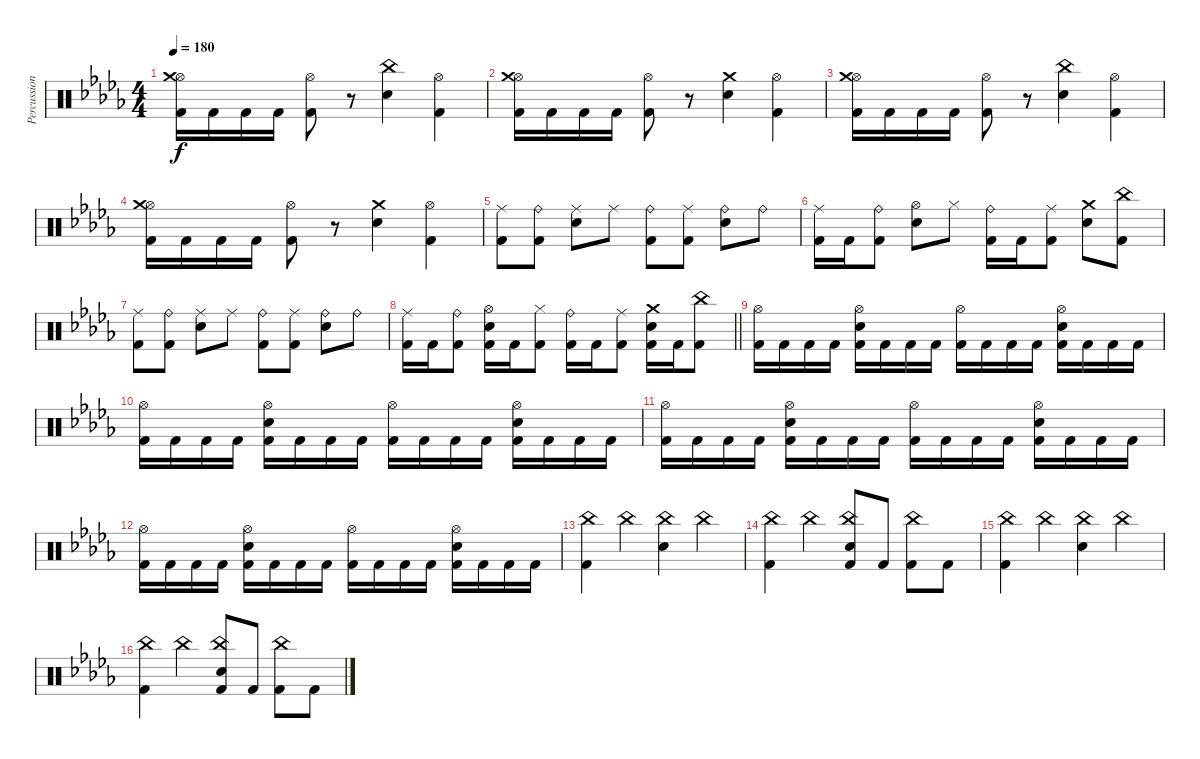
\track ("Percussions" "Percussion") {instrument percussion}
\staff {score}
\articulation defaults
\ts (4 4)
\tempo 180
\clef neutral
\ks bbminor
("Hi-Hat (open)" "Crash medium (hit)" "Kick (hit) 2").16{dy f} "Kick (hit) 2".16 "Kick (hit) 2".16 "Kick (hit) 2".16 ("Hi-Hat (open)" "Kick (hit) 2").8 r.8 ("China (hit)" "Electric Snare (hit)").4 ("Hi-Hat (open)" "Kick (hit) 2").4 |
("Hi-Hat (open)" "Crash medium (hit)" "Kick (hit) 2").16 "Kick (hit) 2".16 "Kick (hit) 2".16 "Kick (hit) 2".16 ("Hi-Hat (open)" "Kick (hit) 2").8 r.8 ("Crash medium (hit)" "Electric Snare (hit)").4 ("Hi-Hat (open)" "Kick (hit) 2").4 |
("Hi-Hat (open)" "Crash medium (hit)" "Kick (hit) 2").16 "Kick (hit) 2".16 "Kick (hit) 2".16 "Kick (hit) 2".16 ("Hi-Hat (open)" "Kick (hit) 2").8 r.8 ("China (hit)" "Electric Snare (hit)").4 ("Hi-Hat (open)" "Kick (hit) 2").4 |
("Hi-Hat (open)" "Crash medium (hit)" "Kick (hit) 2").16 "Kick (hit) 2".16 "Kick (hit) 2".16 "Kick (hit) 2".16 ("Hi-Hat (open)" "Kick (hit) 2").8 r.8 ("Crash medium (hit)" "Electric Snare (hit)").4 ("Hi-Hat (open)" "Kick (hit) 2").4 |
("Ride (middle)" "Kick (hit) 2").8 ("Ride (bell)" "Kick (hit) 2").8 ("Ride (middle)" "Electric Snare (hit)").8 "Ride (middle)".8 ("Ride (bell)" "Kick (hit) 2").8 ("Ride (middle)" "Kick (hit) 2").8 ("Ride (bell)" "Electric Snare (hit)").8 "Ride (bell)".8 |
("Ride (middle)" "Kick (hit) 2").16 "Kick (hit) 2".16 ("Ride (bell)" "Kick (hit) 2").8 ("Hi-Hat (open)" "Electric Snare (hit)").8 "Hi-Hat (closed)".8 ("Ride (bell)" "Kick (hit) 2").16 "Kick (hit) 2".16 ("Ride (middle)" "Kick (hit) 2").8 ("Crash medium (hit)" "Electric Snare (hit)").8 ("China (hit)" "Kick (hit) 2").8 |
("Ride (middle)" "Kick (hit) 2").8 ("Ride (bell)" "Kick (hit) 2").8 ("Ride (middle)" "Electric Snare (hit)").8 "Ride (middle)".8 ("Ride (bell)" "Kick (hit) 2").8 ("Ride (middle)" "Kick (hit) 2").8 ("Ride (bell)" "Electric Snare (hit)").8 "Ride (bell)".8 |
\barLineRight lightlight
("Ride (middle)" "Kick (hit) 2").16 "Kick (hit) 2".16 ("Ride (bell)" "Kick (hit) 2").8 ("Hi-Hat (open)" "Electric Snare (hit)" "Kick (hit) 2").16 "Kick (hit) 2".16 ("Hi-Hat (closed)" "Kick (hit) 2").8 ("Ride (bell)" "Kick (hit) 2").16 "Kick (hit) 2".16 ("Ride (middle)" "Kick (hit) 2").8 ("Crash medium (hit)" "Electric Snare (hit)" "Kick (hit) 2").16 "Kick (hit) 2".16 ("China (hit)" "Kick (hit) 2").8 |
("Hi-Hat (open)" "Kick (hit) 2").16 "Kick (hit) 2".16 "Kick (hit) 2".16 "Kick (hit) 2".16 ("Hi-Hat (open)" "Electric Snare (hit)" "Kick (hit) 2").16 "Kick (hit) 2".16 "Kick (hit) 2".16 "Kick (hit) 2".16 ("Hi-Hat (open)" "Kick (hit) 2").16 "Kick (hit) 2".16 "Kick (hit) 2".16 "Kick (hit) 2".16 ("Hi-Hat (open)" "Electric Snare (hit)" "Kick (hit) 2").16 "Kick (hit) 2".16 "Kick (hit) 2".16 "Kick (hit) 2".16 |
("Hi-Hat (open)" "Kick (hit) 2").16 "Kick (hit) 2".16 "Kick (hit) 2".16 "Kick (hit) 2".16 ("Hi-Hat (open)" "Electric Snare (hit)" "Kick (hit) 2").16 "Kick (hit) 2".16 "Kick (hit) 2".16 "Kick (hit) 2".16 ("Hi-Hat (open)" "Kick (hit) 2").16 "Kick (hit) 2".16 "Kick (hit) 2".16 "Kick (hit) 2".16 ("Hi-Hat (open)" "Electric Snare (hit)" "Kick (hit) 2").16 "Kick (hit) 2".16 "Kick (hit) 2".16 "Kick (hit) 2".16 |
("Hi-Hat (open)" "Kick (hit) 2").16 "Kick (hit) 2".16 "Kick (hit) 2".16 "Kick (hit) 2".16 ("Hi-Hat (open)" "Electric Snare (hit)" "Kick (hit) 2").16 "Kick (hit) 2".16 "Kick (hit) 2".16 "Kick (hit) 2".16 ("Hi-Hat (open)" "Kick (hit) 2").16 "Kick (hit) 2".16 "Kick (hit) 2".16 "Kick (hit) 2".16 ("Hi-Hat (open)" "Electric Snare (hit)" "Kick (hit) 2").16 "Kick (hit) 2".16 "Kick (hit) 2".16 "Kick (hit) 2".16 |
("Hi-Hat (open)" "Kick (hit) 2").16 "Kick (hit) 2".16 "Kick (hit) 2".16 "Kick (hit) 2".16 ("Hi-Hat (open)" "Electric Snare (hit)" "Kick (hit) 2").16 "Kick (hit) 2".16 "Kick (hit) 2".16 "Kick (hit) 2".16 ("Hi-Hat (open)" "Kick (hit) 2").16 "Kick (hit) 2".16 "Kick (hit) 2".16 "Kick (hit) 2".16 ("Hi-Hat (open)" "Electric Snare (hit)" "Kick (hit) 2").16 "Kick (hit) 2".16 "Kick (hit) 2".16 "Kick (hit) 2".16 |
("China (hit)" "Kick (hit) 2").4 "China (hit)".4 ("China (hit)" "Electric Snare (hit)").4 "China (hit)".4 |
("China (hit)" "Kick (hit) 2").4 "China (hit)".4 ("China (hit)" "Electric Snare (hit)" "Kick (hit) 2").8 "Kick (hit) 2".8 ("China (hit)" "Kick (hit) 2").8 "Kick (hit) 2".8 |
("China (hit)" "Kick (hit) 2").4 "China (hit)".4 ("China (hit)" "Electric Snare (hit)").4 "China (hit)".4 |
("China (hit)" "Kick (hit) 2").4 "China (hit)".4 ("China (hit)" "Electric Snare (hit)" "Kick (hit) 2").8 "Kick (hit) 2".8 ("China (hit)" "Kick (hit) 2").8 "Kick (hit) 2".8
